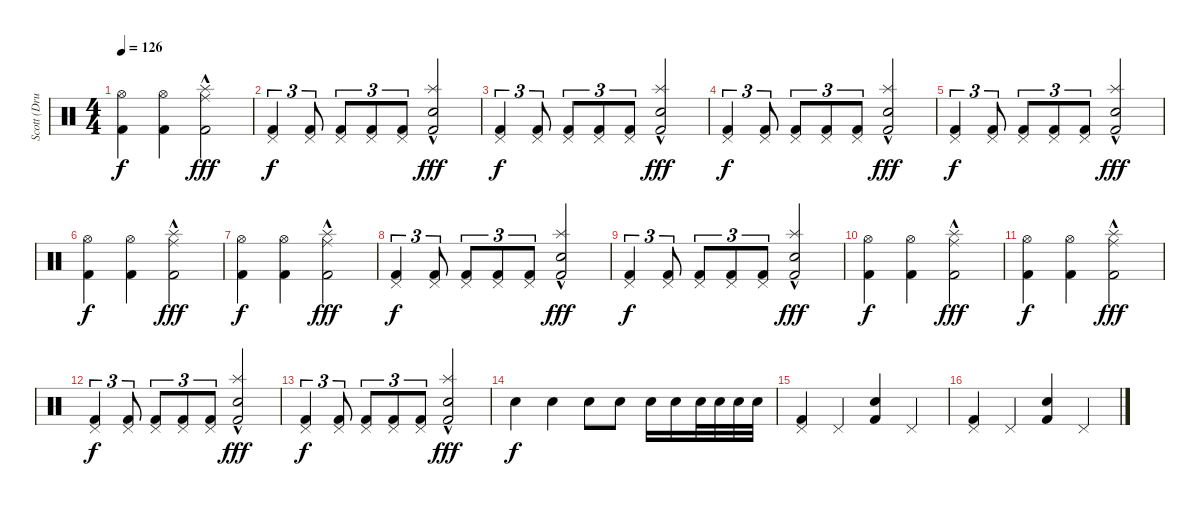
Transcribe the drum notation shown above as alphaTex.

\track ("Scott (Drums)" "Scott (Dru") {instrument percussion}
\staff {score}
\articulation defaults
\ts (4 4)
\tempo 126
\clef neutral
\ks c
("Hi-Hat (open)" "Kick (hit) 2").4{dy f} ("Hi-Hat (open)" "Kick (hit) 2").4 ("Splash (hit)"{hac} "Ride (middle)"{hac} "Kick (hit) 2"{hac}).2{dy fff} |
("Pedal Hi-Hat (hit)" "Kick (hit) 2").4{tu (3 2) dy f} ("Pedal Hi-Hat (hit)" "Kick (hit) 2").8{tu (3 2)} ("Pedal Hi-Hat (hit)" "Kick (hit) 2").8{tu (3 2)} ("Pedal Hi-Hat (hit)" "Kick (hit) 2").8{tu (3 2)} ("Pedal Hi-Hat (hit)" "Kick (hit) 2").8{tu (3 2)} ("Splash (hit)"{hac} "Electric Snare (hit)"{hac} "Kick (hit) 2").2{dy fff} |
("Pedal Hi-Hat (hit)" "Kick (hit) 2").4{tu (3 2) dy f} ("Pedal Hi-Hat (hit)" "Kick (hit) 2").8{tu (3 2)} ("Pedal Hi-Hat (hit)" "Kick (hit) 2").8{tu (3 2)} ("Pedal Hi-Hat (hit)" "Kick (hit) 2").8{tu (3 2)} ("Pedal Hi-Hat (hit)" "Kick (hit) 2").8{tu (3 2)} ("Splash (hit)"{hac} "Electric Snare (hit)"{hac} "Kick (hit) 2").2{dy fff} |
("Pedal Hi-Hat (hit)" "Kick (hit) 2").4{tu (3 2) dy f} ("Pedal Hi-Hat (hit)" "Kick (hit) 2").8{tu (3 2)} ("Pedal Hi-Hat (hit)" "Kick (hit) 2").8{tu (3 2)} ("Pedal Hi-Hat (hit)" "Kick (hit) 2").8{tu (3 2)} ("Pedal Hi-Hat (hit)" "Kick (hit) 2").8{tu (3 2)} ("Splash (hit)"{hac} "Electric Snare (hit)"{hac} "Kick (hit) 2").2{dy fff} |
("Pedal Hi-Hat (hit)" "Kick (hit) 2").4{tu (3 2) dy f} ("Pedal Hi-Hat (hit)" "Kick (hit) 2").8{tu (3 2)} ("Pedal Hi-Hat (hit)" "Kick (hit) 2").8{tu (3 2)} ("Pedal Hi-Hat (hit)" "Kick (hit) 2").8{tu (3 2)} ("Pedal Hi-Hat (hit)" "Kick (hit) 2").8{tu (3 2)} ("Splash (hit)"{hac} "Electric Snare (hit)"{hac} "Kick (hit) 2").2{dy fff} |
("Hi-Hat (open)" "Kick (hit) 2").4{dy f} ("Hi-Hat (open)" "Kick (hit) 2").4 ("Splash (hit)"{hac} "Ride (middle)"{hac} "Kick (hit) 2"{hac}).2{dy fff} |
("Hi-Hat (open)" "Kick (hit) 2").4{dy f} ("Hi-Hat (open)" "Kick (hit) 2").4 ("Splash (hit)"{hac} "Ride (middle)"{hac} "Kick (hit) 2"{hac}).2{dy fff} |
("Pedal Hi-Hat (hit)" "Kick (hit) 2").4{tu (3 2) dy f} ("Pedal Hi-Hat (hit)" "Kick (hit) 2").8{tu (3 2)} ("Pedal Hi-Hat (hit)" "Kick (hit) 2").8{tu (3 2)} ("Pedal Hi-Hat (hit)" "Kick (hit) 2").8{tu (3 2)} ("Pedal Hi-Hat (hit)" "Kick (hit) 2").8{tu (3 2)} ("Splash (hit)"{hac} "Electric Snare (hit)"{hac} "Kick (hit) 2").2{dy fff} |
("Pedal Hi-Hat (hit)" "Kick (hit) 2").4{tu (3 2) dy f} ("Pedal Hi-Hat (hit)" "Kick (hit) 2").8{tu (3 2)} ("Pedal Hi-Hat (hit)" "Kick (hit) 2").8{tu (3 2)} ("Pedal Hi-Hat (hit)" "Kick (hit) 2").8{tu (3 2)} ("Pedal Hi-Hat (hit)" "Kick (hit) 2").8{tu (3 2)} ("Splash (hit)"{hac} "Electric Snare (hit)"{hac} "Kick (hit) 2").2{dy fff} |
("Hi-Hat (open)" "Kick (hit) 2").4{dy f} ("Hi-Hat (open)" "Kick (hit) 2").4 ("Splash (hit)"{hac} "Ride (middle)"{hac} "Kick (hit) 2"{hac}).2{dy fff} |
("Hi-Hat (open)" "Kick (hit) 2").4{dy f} ("Hi-Hat (open)" "Kick (hit) 2").4 ("Splash (hit)"{hac} "Ride (middle)"{hac} "Kick (hit) 2"{hac}).2{dy fff} |
("Pedal Hi-Hat (hit)" "Kick (hit) 2").4{tu (3 2) dy f} ("Pedal Hi-Hat (hit)" "Kick (hit) 2").8{tu (3 2)} ("Pedal Hi-Hat (hit)" "Kick (hit) 2").8{tu (3 2)} ("Pedal Hi-Hat (hit)" "Kick (hit) 2").8{tu (3 2)} ("Pedal Hi-Hat (hit)" "Kick (hit) 2").8{tu (3 2)} ("Splash (hit)"{hac} "Electric Snare (hit)"{hac} "Kick (hit) 2").2{dy fff} |
("Pedal Hi-Hat (hit)" "Kick (hit) 2").4{tu (3 2) dy f} ("Pedal Hi-Hat (hit)" "Kick (hit) 2").8{tu (3 2)} ("Pedal Hi-Hat (hit)" "Kick (hit) 2").8{tu (3 2)} ("Pedal Hi-Hat (hit)" "Kick (hit) 2").8{tu (3 2)} ("Pedal Hi-Hat (hit)" "Kick (hit) 2").8{tu (3 2)} ("Splash (hit)"{hac} "Electric Snare (hit)"{hac} "Kick (hit) 2").2{dy fff} |
"Electric Snare (hit)".4{dy f} "Electric Snare (hit)".4 "Electric Snare (hit)".8 "Electric Snare (hit)".8 "Electric Snare (hit)".16 "Electric Snare (hit)".16 "Electric Snare (hit)".32 "Electric Snare (hit)".32 "Electric Snare (hit)".32 "Electric Snare (hit)".32 |
("Pedal Hi-Hat (hit)" "Kick (hit) 2").4 "Pedal Hi-Hat (hit)".4 ("Electric Snare (hit)" "Kick (hit) 2").4 "Pedal Hi-Hat (hit)".4 |
("Pedal Hi-Hat (hit)" "Kick (hit) 2").4 "Pedal Hi-Hat (hit)".4 ("Electric Snare (hit)" "Kick (hit) 2").4 "Pedal Hi-Hat (hit)".4
